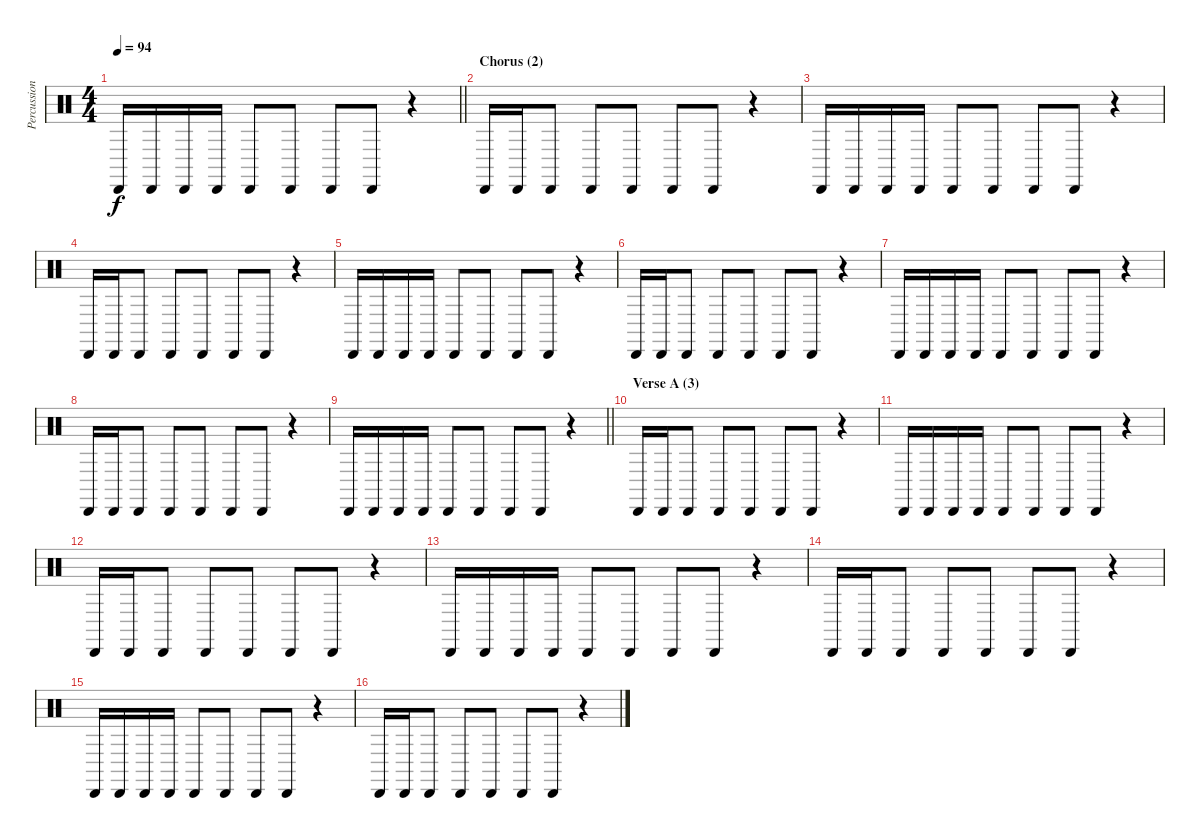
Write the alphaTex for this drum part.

\track ("Percussion" "Percussion") {instrument percussion}
\staff {score}
\articulation defaults
\ts (4 4)
\tempo 94
\clef neutral
\barLineRight lightlight
\ks aminor "Cabasa (hit)".16{dy f} "Cabasa (hit)".16 "Cabasa (hit)".16 "Cabasa (hit)".16 "Cabasa (hit)".8 "Cabasa (hit)".8 "Cabasa (hit)".8 "Cabasa (hit)".8
r.4 |
\section ("" "Chorus (2)")
"Cabasa (hit)".16 "Cabasa (hit)".16 "Cabasa (hit)".8 "Cabasa (hit)".8 "Cabasa (hit)".8 "Cabasa (hit)".8 "Cabasa (hit)".8 r.4 |
"Cabasa (hit)".16 "Cabasa (hit)".16 "Cabasa (hit)".16 "Cabasa (hit)".16 "Cabasa (hit)".8 "Cabasa (hit)".8 "Cabasa (hit)".8 "Cabasa (hit)".8 r.4 |
"Cabasa (hit)".16 "Cabasa (hit)".16 "Cabasa (hit)".8 "Cabasa (hit)".8 "Cabasa (hit)".8 "Cabasa (hit)".8 "Cabasa (hit)".8 r.4 |
"Cabasa (hit)".16 "Cabasa (hit)".16 "Cabasa (hit)".16 "Cabasa (hit)".16 "Cabasa (hit)".8 "Cabasa (hit)".8 "Cabasa (hit)".8 "Cabasa (hit)".8 r.4 |
"Cabasa (hit)".16 "Cabasa (hit)".16 "Cabasa (hit)".8 "Cabasa (hit)".8 "Cabasa (hit)".8 "Cabasa (hit)".8 "Cabasa (hit)".8 r.4 |
"Cabasa (hit)".16 "Cabasa (hit)".16 "Cabasa (hit)".16 "Cabasa (hit)".16 "Cabasa (hit)".8 "Cabasa (hit)".8 "Cabasa (hit)".8 "Cabasa (hit)".8 r.4 |
"Cabasa (hit)".16 "Cabasa (hit)".16 "Cabasa (hit)".8 "Cabasa (hit)".8 "Cabasa (hit)".8 "Cabasa (hit)".8 "Cabasa (hit)".8 r.4 |
\barLineRight lightlight "Cabasa (hit)".16 "Cabasa (hit)".16 "Cabasa (hit)".16 "Cabasa (hit)".16 "Cabasa (hit)".8 "Cabasa (hit)".8 "Cabasa (hit)".8 "Cabasa (hit)".8
r.4 |
\section ("" "Verse A (3)")
"Cabasa (hit)".16 "Cabasa (hit)".16 "Cabasa (hit)".8 "Cabasa (hit)".8 "Cabasa (hit)".8 "Cabasa (hit)".8 "Cabasa (hit)".8 r.4 |
"Cabasa (hit)".16 "Cabasa (hit)".16 "Cabasa (hit)".16 "Cabasa (hit)".16 "Cabasa (hit)".8 "Cabasa (hit)".8 "Cabasa (hit)".8 "Cabasa (hit)".8 r.4 |
"Cabasa (hit)".16 "Cabasa (hit)".16 "Cabasa (hit)".8 "Cabasa (hit)".8 "Cabasa (hit)".8 "Cabasa (hit)".8 "Cabasa (hit)".8 r.4 |
"Cabasa (hit)".16 "Cabasa (hit)".16 "Cabasa (hit)".16 "Cabasa (hit)".16 "Cabasa (hit)".8 "Cabasa (hit)".8 "Cabasa (hit)".8 "Cabasa (hit)".8 r.4 |
"Cabasa (hit)".16 "Cabasa (hit)".16 "Cabasa (hit)".8 "Cabasa (hit)".8 "Cabasa (hit)".8 "Cabasa (hit)".8 "Cabasa (hit)".8 r.4 |
"Cabasa (hit)".16 "Cabasa (hit)".16 "Cabasa (hit)".16 "Cabasa (hit)".16 "Cabasa (hit)".8 "Cabasa (hit)".8 "Cabasa (hit)".8 "Cabasa (hit)".8 r.4 |
"Cabasa (hit)".16 "Cabasa (hit)".16 "Cabasa (hit)".8 "Cabasa (hit)".8 "Cabasa (hit)".8 "Cabasa (hit)".8 "Cabasa (hit)".8 r.4
